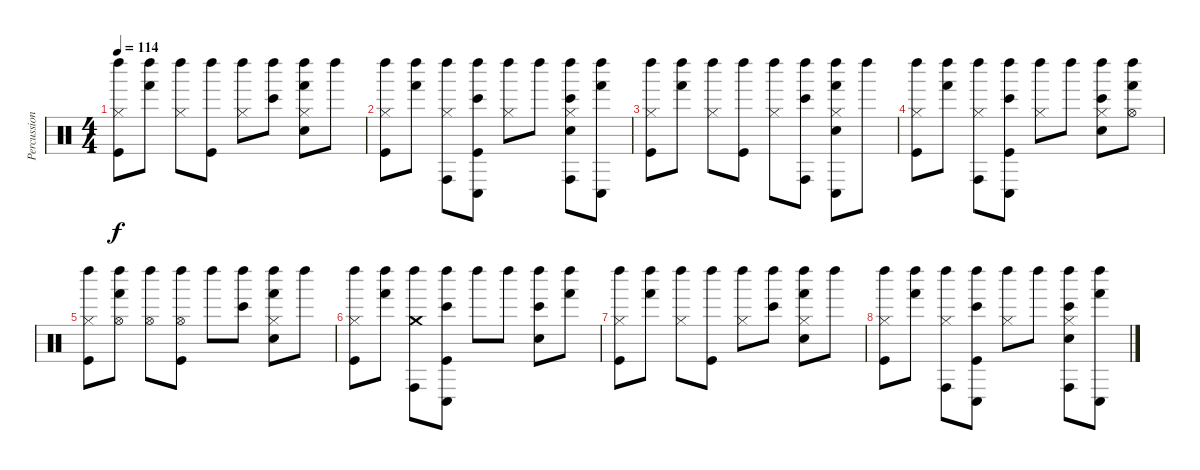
\track ("Percussion" "Percussion") {instrument percussion}
\staff {score}
\articulation defaults
\ts (4 4)
\tempo 114
\clef neutral
\ks c
("Left Maraca (hit)" "Hi-Hat (closed)" "Kick (hit)").8{dy f} ("Left Maraca (hit)" "Hand (hit)").8 ("Left Maraca (hit)" "Hi-Hat (closed)").8 ("Left Maraca (hit)" "Kick (hit)").8 ("Left Maraca (hit)" "Hi-Hat (closed)").8 ("Left Maraca (hit)" "Bongo High (hit)").8 ("Left Maraca (hit)" "Hand (hit)" "Hi-Hat (closed)" "Snare (hit) 2").8 "Left Maraca (hit)".8 |
("Left Maraca (hit)" "Hi-Hat (closed)" "Kick (hit)").8 ("Left Maraca (hit)" "Hand (hit)").8 ("Left Maraca (hit)" "Conga high (hit)" "Hi-Hat (closed)").8 ("Left Maraca (hit)" "Conga low (hit)" "Bongo High (hit)" "Kick (hit)").8 ("Left Maraca (hit)" "Hi-Hat (closed)").8 "Left Maraca (hit)".8 ("Left Maraca (hit)" "Conga high (hit)" "Bongo High (hit)" "Hi-Hat (closed)" "Snare (hit) 2").8 ("Left Maraca (hit)" "Conga low (hit)" "Hand (hit)").8 |
("Left Maraca (hit)" "Hi-Hat (closed)" "Kick (hit)").8 ("Left Maraca (hit)" "Hand (hit)").8 ("Left Maraca (hit)" "Hi-Hat (closed)").8 ("Left Maraca (hit)" "Kick (hit)").8 ("Left Maraca (hit)" "Hi-Hat (closed)").8 ("Left Maraca (hit)" "Conga high (hit)" "Bongo High (hit)").8 ("Left Maraca (hit)" "Conga low (hit)" "Hand (hit)" "Hi-Hat (closed)" "Snare (hit) 2").8 "Left Maraca (hit)".8 |
("Left Maraca (hit)" "Hi-Hat (closed)" "Kick (hit)").8 ("Left Maraca (hit)" "Hand (hit)").8 ("Left Maraca (hit)" "Conga high (hit)" "Hi-Hat (closed)").8 ("Left Maraca (hit)" "Conga low (hit)" "Bongo High (hit)" "Kick (hit)").8 ("Left Maraca (hit)" "Hi-Hat (closed)").8 "Left Maraca (hit)".8 ("Left Maraca (hit)" "Bongo High (hit)" "Hi-Hat (closed)" "Snare (hit) 2").8 ("Left Maraca (hit)" "Hand (hit)" "Hi-Hat (open)").8 |
("Left Maraca (hit)" "Hi-Hat (closed)" "Kick (hit)").8 ("Left Maraca (hit)" "Hand (hit)" "Hi-Hat (open)").8 ("Left Maraca (hit)" "Hi-Hat (open)").8 ("Left Maraca (hit)" "Hi-Hat (open)" "Kick (hit)").8 "Left Maraca (hit)".8 ("Left Maraca (hit)" "Bongo High (hit)").8 ("Left Maraca (hit)" "Hand (hit)" "Hi-Hat (closed)" "Snare (hit) 2").8 "Left Maraca (hit)".8 |
("Left Maraca (hit)" "Hi-Hat (closed)" "Kick (hit)").8 ("Left Maraca (hit)" "Hand (hit)").8 ("Left Maraca (hit)" "Conga high (hit)" "Crash medium (hit)").8 ("Left Maraca (hit)" "Conga low (hit)" "Bongo High (hit)" "Kick (hit)").8 "Left Maraca (hit)".8 "Left Maraca (hit)".8 ("Left Maraca (hit)" "Bongo High (hit)" "Snare (hit) 2").8 ("Left Maraca (hit)" "Hand (hit)").8 |
("Left Maraca (hit)" "Hi-Hat (closed)" "Kick (hit)").8 ("Left Maraca (hit)" "Hand (hit)").8 ("Left Maraca (hit)" "Hi-Hat (closed)").8 ("Left Maraca (hit)" "Kick (hit)").8 ("Left Maraca (hit)" "Hi-Hat (closed)").8 ("Left Maraca (hit)" "Bongo High (hit)").8 ("Left Maraca (hit)" "Hand (hit)" "Hi-Hat (closed)" "Snare (hit) 2").8 "Left Maraca (hit)".8 |
("Left Maraca (hit)" "Hi-Hat (closed)" "Kick (hit)").8 ("Left Maraca (hit)" "Hand (hit)").8 ("Left Maraca (hit)" "Conga high (hit)" "Hi-Hat (closed)").8 ("Left Maraca (hit)" "Conga low (hit)" "Bongo High (hit)" "Kick (hit)").8 ("Left Maraca (hit)" "Hi-Hat (closed)").8 "Left Maraca (hit)".8 ("Left Maraca (hit)" "Conga high (hit)" "Bongo High (hit)" "Hi-Hat (closed)" "Snare (hit) 2").8 ("Left Maraca (hit)" "Conga low (hit)" "Hand (hit)").8
